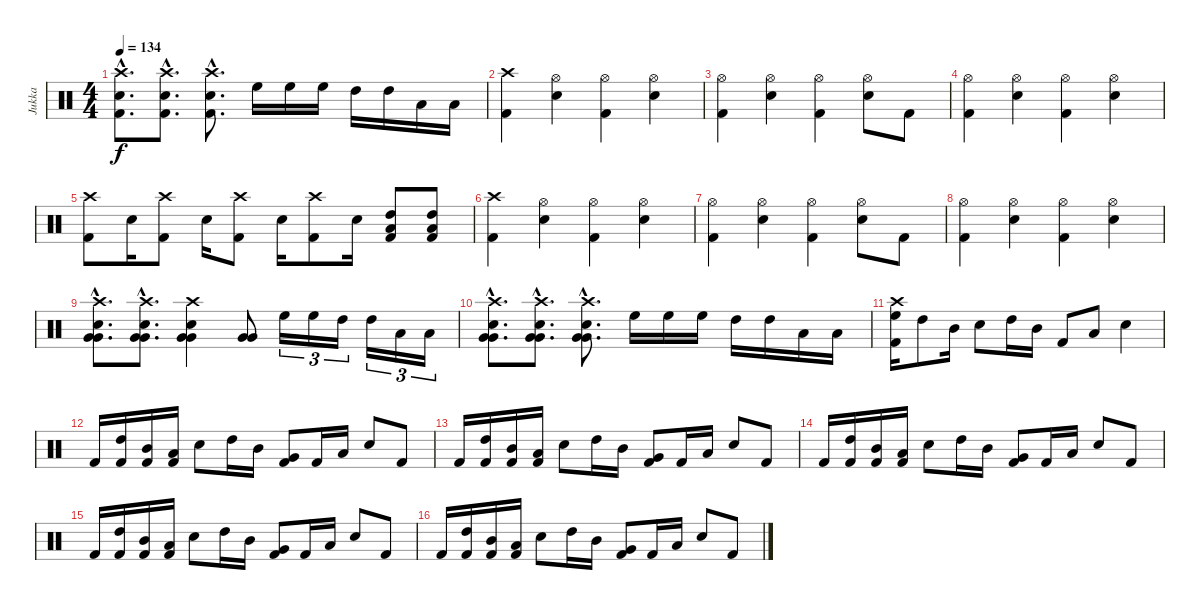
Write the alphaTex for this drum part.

\track ("Jukka" "Jukka") {instrument percussion}
\staff {score}
\articulation defaults
\ts (4 4)
\tempo 134
\clef neutral
\ks c
("Crash high (hit)"{hac} "Electric Snare (hit)"{hac} "Kick (hit) 2"{hac}).8{d dy f} ("Crash high (hit)"{hac} "Electric Snare (hit)"{hac} "Kick (hit) 2"{hac}).8{d} ("Crash high (hit)"{hac} "Electric Snare (hit)"{hac} "Kick (hit) 2"{hac}).8{d} "High Floor Tom (hit)".16 "High Floor Tom (hit)".16 "High Floor Tom (hit)".16 "High Tom (hit)".16 "High Tom (hit)".16 "Low Tom (hit)".16 "Low Tom (hit)".16 |
("Crash high (hit)" "Kick (hit) 2").4 ("Hi-Hat (open)" "Electric Snare (hit)").4 ("Hi-Hat (open)" "Kick (hit) 2").4 ("Hi-Hat (open)" "Electric Snare (hit)").4 |
("Hi-Hat (open)" "Kick (hit) 2").4 ("Hi-Hat (open)" "Electric Snare (hit)").4 ("Hi-Hat (open)" "Kick (hit) 2").4 ("Hi-Hat (open)" "Electric Snare (hit)").8 "Kick (hit) 2".8 |
("Hi-Hat (open)" "Kick (hit) 2").4 ("Hi-Hat (open)" "Electric Snare (hit)").4 ("Hi-Hat (open)" "Kick (hit) 2").4 ("Hi-Hat (open)" "Electric Snare (hit)").4 |
("Crash high (hit)" "Kick (hit) 2").8 "Electric Snare (hit)".16 ("Crash high (hit)" "Kick (hit) 2").8 "Electric Snare (hit)".16 ("Crash high (hit)" "Kick (hit) 2").8 "Electric Snare (hit)".16 ("Crash high (hit)" "Kick (hit) 2").8 "Electric Snare (hit)".16 ("High Tom (hit)" "Low Tom (hit)" "Kick (hit) 2").8 ("High Tom (hit)" "Low Tom (hit)" "Kick (hit) 2").8 |
("Crash high (hit)" "Kick (hit) 2").4 ("Hi-Hat (open)" "Electric Snare (hit)").4 ("Hi-Hat (open)" "Kick (hit) 2").4 ("Hi-Hat (open)" "Electric Snare (hit)").4 |
("Hi-Hat (open)" "Kick (hit) 2").4 ("Hi-Hat (open)" "Electric Snare (hit)").4 ("Hi-Hat (open)" "Kick (hit) 2").4 ("Hi-Hat (open)" "Electric Snare (hit)").8 "Kick (hit) 2".8 |
("Hi-Hat (open)" "Kick (hit) 2").4 ("Hi-Hat (open)" "Electric Snare (hit)").4 ("Hi-Hat (open)" "Kick (hit) 2").4 ("Hi-Hat (open)" "Electric Snare (hit)").4 |
("Crash high (hit)"{hac} "Electric Snare (hit)"{hac} "Very Low Tom (hit)"{hac} "Very Low Tom (hit)"{hac}).8{d} ("Crash high (hit)"{hac} "Electric Snare (hit)"{hac} "Very Low Tom (hit)"{hac} "Very Low Tom (hit)"{hac}).8{d} ("Crash high (hit)" "Electric Snare (hit)" "Very Low Tom (hit)" "Very Low Tom (hit)").4 ("Very Low Tom (hit)" "Very Low Tom (hit)").8 "High Floor Tom (hit)".16{tu (3 2)} "High Floor Tom (hit)".16{tu (3 2)} "High Tom (hit)".16{tu (3 2)} "High Tom (hit)".16{tu (3 2)} "Low Tom (hit)".16{tu (3 2)} "Low Tom (hit)".16{tu (3 2)} |
("Crash high (hit)"{hac} "Electric Snare (hit)"{hac} "Very Low Tom (hit)"{hac} "Very Low Tom (hit)"{hac}).8{d} ("Crash high (hit)"{hac} "Electric Snare (hit)"{hac} "Very Low Tom (hit)"{hac} "Very Low Tom (hit)"{hac}).8{d} ("Crash high (hit)"{hac} "Electric Snare (hit)"{hac} "Very Low Tom (hit)"{hac} "Very Low Tom (hit)"{hac}).8{d} "High Floor Tom (hit)".16 "High Floor Tom (hit)".16 "High Floor Tom (hit)".16 "High Tom (hit)".16 "High Tom (hit)".16 "Low Tom (hit)".16 "Low Tom (hit)".16 |
("Crash high (hit)" "High Floor Tom (hit)" "Kick (hit) 2").16 "High Tom (hit)".8 "Mid Tom (hit)".16 "Electric Snare (hit)".8 "High Tom (hit)".16 "Mid Tom (hit)".16 "Kick (hit) 2".8 "Low Tom (hit)".8 "Electric Snare (hit)".4 |
"Kick (hit) 2".16 ("High Tom (hit)" "Kick (hit) 2").16 ("Mid Tom (hit)" "Kick (hit) 2").16 ("Low Tom (hit)" "Kick (hit) 2").16 "Electric Snare (hit)".8 "High Tom (hit)".16 "Mid Tom (hit)".16 ("Very Low Tom (hit)" "Kick (hit) 2").8 "Kick (hit) 2".16 "Low Tom (hit)".16 "Electric Snare (hit)".8 "Kick (hit) 2".8 |
"Kick (hit) 2".16 ("High Tom (hit)" "Kick (hit) 2").16 ("Mid Tom (hit)" "Kick (hit) 2").16 ("Low Tom (hit)" "Kick (hit) 2").16 "Electric Snare (hit)".8 "High Tom (hit)".16 "Mid Tom (hit)".16 ("Very Low Tom (hit)" "Kick (hit) 2").8 "Kick (hit) 2".16 "Low Tom (hit)".16 "Electric Snare (hit)".8 "Kick (hit) 2".8 |
"Kick (hit) 2".16 ("High Tom (hit)" "Kick (hit) 2").16 ("Mid Tom (hit)" "Kick (hit) 2").16 ("Low Tom (hit)" "Kick (hit) 2").16 "Electric Snare (hit)".8 "High Tom (hit)".16 "Mid Tom (hit)".16 ("Very Low Tom (hit)" "Kick (hit) 2").8 "Kick (hit) 2".16 "Low Tom (hit)".16 "Electric Snare (hit)".8 "Kick (hit) 2".8 |
"Kick (hit) 2".16 ("High Tom (hit)" "Kick (hit) 2").16 ("Mid Tom (hit)" "Kick (hit) 2").16 ("Low Tom (hit)" "Kick (hit) 2").16 "Electric Snare (hit)".8 "High Tom (hit)".16 "Mid Tom (hit)".16 ("Very Low Tom (hit)" "Kick (hit) 2").8 "Kick (hit) 2".16 "Low Tom (hit)".16 "Electric Snare (hit)".8 "Kick (hit) 2".8 |
"Kick (hit) 2".16 ("High Tom (hit)" "Kick (hit) 2").16 ("Mid Tom (hit)" "Kick (hit) 2").16 ("Low Tom (hit)" "Kick (hit) 2").16 "Electric Snare (hit)".8 "High Tom (hit)".16 "Mid Tom (hit)".16 ("Very Low Tom (hit)" "Kick (hit) 2").8 "Kick (hit) 2".16 "Low Tom (hit)".16 "Electric Snare (hit)".8 "Kick (hit) 2".8
